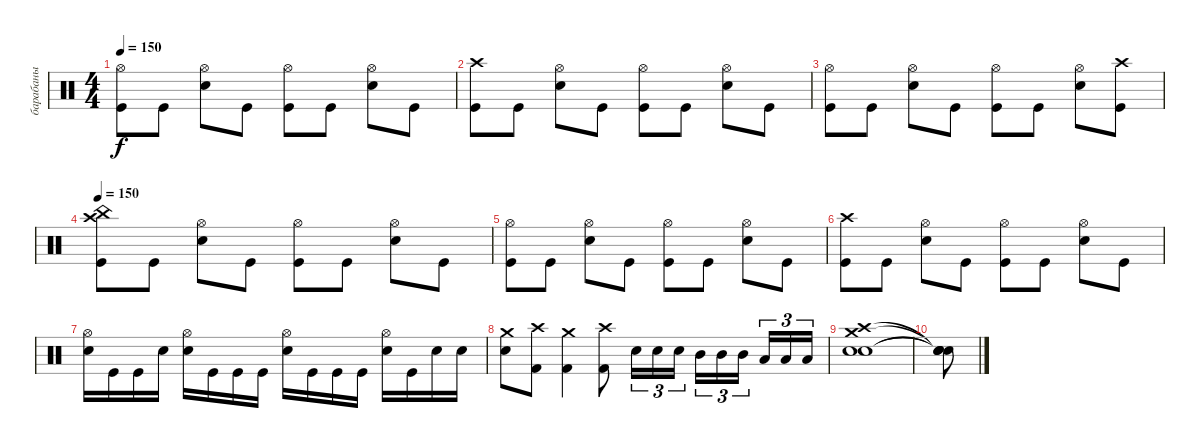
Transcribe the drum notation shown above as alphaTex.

\track ("барабаны" "барабаны") {instrument percussion}
\staff {score}
\articulation defaults
\ts (4 4)
\tempo 150
\clef neutral
\ks c
("Hi-Hat (open)" "Kick (hit)").8{dy f} "Kick (hit)".8 ("Hi-Hat (open)" "Electric Snare (hit)").8 "Kick (hit)".8 ("Hi-Hat (open)" "Kick (hit)").8 "Kick (hit)".8 ("Hi-Hat (open)" "Electric Snare (hit)").8 "Kick (hit)".8 |
("Crash high (hit)" "Kick (hit)").8 "Kick (hit)".8 ("Hi-Hat (open)" "Electric Snare (hit)").8 "Kick (hit)".8 ("Hi-Hat (open)" "Kick (hit)").8 "Kick (hit)".8 ("Hi-Hat (open)" "Electric Snare (hit)").8 "Kick (hit)".8 |
("Hi-Hat (open)" "Kick (hit)").8 "Kick (hit)".8 ("Hi-Hat (open)" "Electric Snare (hit)").8 "Kick (hit)".8 ("Hi-Hat (open)" "Kick (hit)").8 "Kick (hit)".8 ("Hi-Hat (open)" "Electric Snare (hit)").8 ("Crash high (hit)" "Kick (hit)").8 |
\tempo 150
("Crash high (hit)" "China (hit)" "Kick (hit)").8 "Kick (hit)".8 ("Hi-Hat (open)" "Electric Snare (hit)").8 "Kick (hit)".8 ("Hi-Hat (open)" "Kick (hit)").8 "Kick (hit)".8 ("Hi-Hat (open)" "Electric Snare (hit)").8 "Kick (hit)".8 |
("Hi-Hat (open)" "Kick (hit)").8 "Kick (hit)".8 ("Hi-Hat (open)" "Electric Snare (hit)").8 "Kick (hit)".8 ("Hi-Hat (open)" "Kick (hit)").8 "Kick (hit)".8 ("Hi-Hat (open)" "Electric Snare (hit)").8 "Kick (hit)".8 |
("Crash high (hit)" "Kick (hit)").8 "Kick (hit)".8 ("Hi-Hat (open)" "Electric Snare (hit)").8 "Kick (hit)".8 ("Hi-Hat (open)" "Kick (hit)").8 "Kick (hit)".8 ("Hi-Hat (open)" "Electric Snare (hit)").8 "Kick (hit)".8 |
("Hi-Hat (open)" "Electric Snare (hit)").16 "Kick (hit)".16 "Kick (hit)".16 "Electric Snare (hit)".16 ("Hi-Hat (open)" "Electric Snare (hit)").16 "Kick (hit)".16 "Kick (hit)".16 "Kick (hit)".16 ("Hi-Hat (open)" "Electric Snare (hit)").16 "Kick (hit)".16 "Kick (hit)".16 "Kick (hit)".16 ("Hi-Hat (open)" "Electric Snare (hit)").16 "Kick (hit)".16 "Electric Snare (hit)".16 "Electric Snare (hit)".16 |
("Electric Snare (hit)" "Crash medium (hit)").8 ("Kick (hit) 2" "Crash high (hit)").8 ("Kick (hit) 2" "Crash medium (hit)").4 ("Kick (hit) 2" "Crash high (hit)").8 "Electric Snare (hit)".16{tu (3 2)} "Electric Snare (hit)".16{tu (3 2)} "Electric Snare (hit)".16{tu (3 2)} "Mid Tom (hit)".16{tu (3 2)} "Mid Tom (hit)".16{tu (3 2)} "Mid Tom (hit)".16{tu (3 2)} "Low Tom (hit)".16{tu (3 2)} "Low Tom (hit)".16{tu (3 2)} "Low Tom (hit)".16{tu (3 2)} |
("Snare (hit) 2" "Snare (hit) 2" "Crash medium (hit)" "Crash high (hit)").1 |
("Snare (hit)"{t} "Snare (hit)"{t} "Snare (hit)"{t} "Snare (hit)"{t}).8
